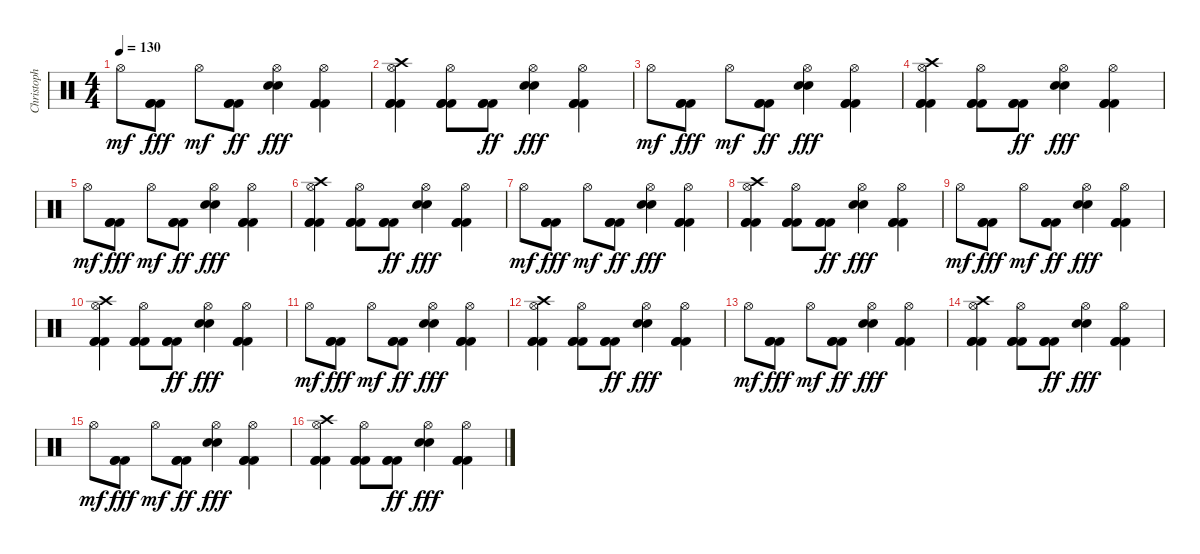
\track ("Christoph Schneider" "Christoph ") {instrument percussion}
\staff {score}
\articulation defaults
\ts (4 4)
\tempo 130
\clef neutral
\ks c "Hi-Hat (open)".8{dy mf}
("Kick (hit) 2" "Kick (hit) 2" "Kick (hit) 2").8{dy fff} "Hi-Hat (open)".8{dy mf} ("Kick (hit) 2" "Kick (hit) 2" "Kick (hit) 2").8{dy ff} ("Hi-Hat (open)" "Snare (hit) 2" "Snare (hit) 2").4{dy fff} ("Hi-Hat (open)" "Kick (hit) 2" "Kick (hit) 2" "Kick (hit) 2").4 |
("Crash high (hit)" "Hi-Hat (open)" "Kick (hit) 2" "Kick (hit) 2" "Kick (hit) 2").4 ("Hi-Hat (open)" "Kick (hit) 2" "Kick (hit) 2" "Kick (hit) 2").8 ("Kick (hit) 2" "Kick (hit) 2" "Kick (hit) 2").8{dy ff} ("Hi-Hat (open)" "Snare (hit) 2" "Snare (hit) 2").4{dy fff} ("Hi-Hat (open)" "Kick (hit) 2" "Kick (hit) 2" "Kick (hit) 2").4 |
"Hi-Hat (open)".8{dy mf} ("Kick (hit) 2" "Kick (hit) 2" "Kick (hit) 2").8{dy fff} "Hi-Hat (open)".8{dy mf} ("Kick (hit) 2" "Kick (hit) 2" "Kick (hit) 2").8{dy ff} ("Hi-Hat (open)" "Snare (hit) 2" "Snare (hit) 2").4{dy fff} ("Hi-Hat (open)" "Kick (hit) 2" "Kick (hit) 2" "Kick (hit) 2").4 |
("Crash high (hit)" "Hi-Hat (open)" "Kick (hit) 2" "Kick (hit) 2" "Kick (hit) 2").4 ("Hi-Hat (open)" "Kick (hit) 2" "Kick (hit) 2" "Kick (hit) 2").8 ("Kick (hit) 2" "Kick (hit) 2" "Kick (hit) 2").8{dy ff} ("Hi-Hat (open)" "Snare (hit) 2" "Snare (hit) 2").4{dy fff} ("Hi-Hat (open)" "Kick (hit) 2" "Kick (hit) 2" "Kick (hit) 2").4 |
"Hi-Hat (open)".8{dy mf} ("Kick (hit) 2" "Kick (hit) 2" "Kick (hit) 2").8{dy fff} "Hi-Hat (open)".8{dy mf} ("Kick (hit) 2" "Kick (hit) 2" "Kick (hit) 2").8{dy ff} ("Hi-Hat (open)" "Snare (hit) 2" "Snare (hit) 2").4{dy fff} ("Hi-Hat (open)" "Kick (hit) 2" "Kick (hit) 2" "Kick (hit) 2").4 |
("Crash high (hit)" "Hi-Hat (open)" "Kick (hit) 2" "Kick (hit) 2" "Kick (hit) 2").4 ("Hi-Hat (open)" "Kick (hit) 2" "Kick (hit) 2" "Kick (hit) 2").8 ("Kick (hit) 2" "Kick (hit) 2" "Kick (hit) 2").8{dy ff} ("Hi-Hat (open)" "Snare (hit) 2" "Snare (hit) 2").4{dy fff} ("Hi-Hat (open)" "Kick (hit) 2" "Kick (hit) 2" "Kick (hit) 2").4 |
"Hi-Hat (open)".8{dy mf} ("Kick (hit) 2" "Kick (hit) 2" "Kick (hit) 2").8{dy fff} "Hi-Hat (open)".8{dy mf} ("Kick (hit) 2" "Kick (hit) 2" "Kick (hit) 2").8{dy ff} ("Hi-Hat (open)" "Snare (hit) 2" "Snare (hit) 2").4{dy fff} ("Hi-Hat (open)" "Kick (hit) 2" "Kick (hit) 2" "Kick (hit) 2").4 |
("Crash high (hit)" "Hi-Hat (open)" "Kick (hit) 2" "Kick (hit) 2" "Kick (hit) 2").4 ("Hi-Hat (open)" "Kick (hit) 2" "Kick (hit) 2" "Kick (hit) 2").8 ("Kick (hit) 2" "Kick (hit) 2" "Kick (hit) 2").8{dy ff} ("Hi-Hat (open)" "Snare (hit) 2" "Snare (hit) 2").4{dy fff} ("Hi-Hat (open)" "Kick (hit) 2" "Kick (hit) 2" "Kick (hit) 2").4 |
"Hi-Hat (open)".8{dy mf} ("Kick (hit) 2" "Kick (hit) 2" "Kick (hit) 2").8{dy fff} "Hi-Hat (open)".8{dy mf} ("Kick (hit) 2" "Kick (hit) 2" "Kick (hit) 2").8{dy ff} ("Hi-Hat (open)" "Snare (hit) 2" "Snare (hit) 2").4{dy fff} ("Hi-Hat (open)" "Kick (hit) 2" "Kick (hit) 2" "Kick (hit) 2").4 |
("Crash high (hit)" "Hi-Hat (open)" "Kick (hit) 2" "Kick (hit) 2" "Kick (hit) 2").4 ("Hi-Hat (open)" "Kick (hit) 2" "Kick (hit) 2" "Kick (hit) 2").8 ("Kick (hit) 2" "Kick (hit) 2" "Kick (hit) 2").8{dy ff} ("Hi-Hat (open)" "Snare (hit) 2" "Snare (hit) 2").4{dy fff} ("Hi-Hat (open)" "Kick (hit) 2" "Kick (hit) 2" "Kick (hit) 2").4 |
"Hi-Hat (open)".8{dy mf} ("Kick (hit) 2" "Kick (hit) 2" "Kick (hit) 2").8{dy fff} "Hi-Hat (open)".8{dy mf} ("Kick (hit) 2" "Kick (hit) 2" "Kick (hit) 2").8{dy ff} ("Hi-Hat (open)" "Snare (hit) 2" "Snare (hit) 2").4{dy fff} ("Hi-Hat (open)" "Kick (hit) 2" "Kick (hit) 2" "Kick (hit) 2").4 |
("Crash high (hit)" "Hi-Hat (open)" "Kick (hit) 2" "Kick (hit) 2" "Kick (hit) 2").4 ("Hi-Hat (open)" "Kick (hit) 2" "Kick (hit) 2" "Kick (hit) 2").8 ("Kick (hit) 2" "Kick (hit) 2" "Kick (hit) 2").8{dy ff} ("Hi-Hat (open)" "Snare (hit) 2" "Snare (hit) 2").4{dy fff} ("Hi-Hat (open)" "Kick (hit) 2" "Kick (hit) 2" "Kick (hit) 2").4 |
"Hi-Hat (open)".8{dy mf} ("Kick (hit) 2" "Kick (hit) 2" "Kick (hit) 2").8{dy fff} "Hi-Hat (open)".8{dy mf} ("Kick (hit) 2" "Kick (hit) 2" "Kick (hit) 2").8{dy ff} ("Hi-Hat (open)" "Snare (hit) 2" "Snare (hit) 2").4{dy fff} ("Hi-Hat (open)" "Kick (hit) 2" "Kick (hit) 2" "Kick (hit) 2").4 |
("Crash high (hit)" "Hi-Hat (open)" "Kick (hit) 2" "Kick (hit) 2" "Kick (hit) 2").4 ("Hi-Hat (open)" "Kick (hit) 2" "Kick (hit) 2" "Kick (hit) 2").8 ("Kick (hit) 2" "Kick (hit) 2" "Kick (hit) 2").8{dy ff} ("Hi-Hat (open)" "Snare (hit) 2" "Snare (hit) 2").4{dy fff} ("Hi-Hat (open)" "Kick (hit) 2" "Kick (hit) 2" "Kick (hit) 2").4 |
"Hi-Hat (open)".8{dy mf} ("Kick (hit) 2" "Kick (hit) 2" "Kick (hit) 2").8{dy fff} "Hi-Hat (open)".8{dy mf} ("Kick (hit) 2" "Kick (hit) 2" "Kick (hit) 2").8{dy ff} ("Hi-Hat (open)" "Snare (hit) 2" "Snare (hit) 2").4{dy fff} ("Hi-Hat (open)" "Kick (hit) 2" "Kick (hit) 2" "Kick (hit) 2").4 |
("Crash high (hit)" "Hi-Hat (open)" "Kick (hit) 2" "Kick (hit) 2" "Kick (hit) 2").4 ("Hi-Hat (open)" "Kick (hit) 2" "Kick (hit) 2" "Kick (hit) 2").8 ("Kick (hit) 2" "Kick (hit) 2" "Kick (hit) 2").8{dy ff} ("Hi-Hat (open)" "Snare (hit) 2" "Snare (hit) 2").4{dy fff} ("Hi-Hat (open)" "Kick (hit) 2" "Kick (hit) 2" "Kick (hit) 2").4
